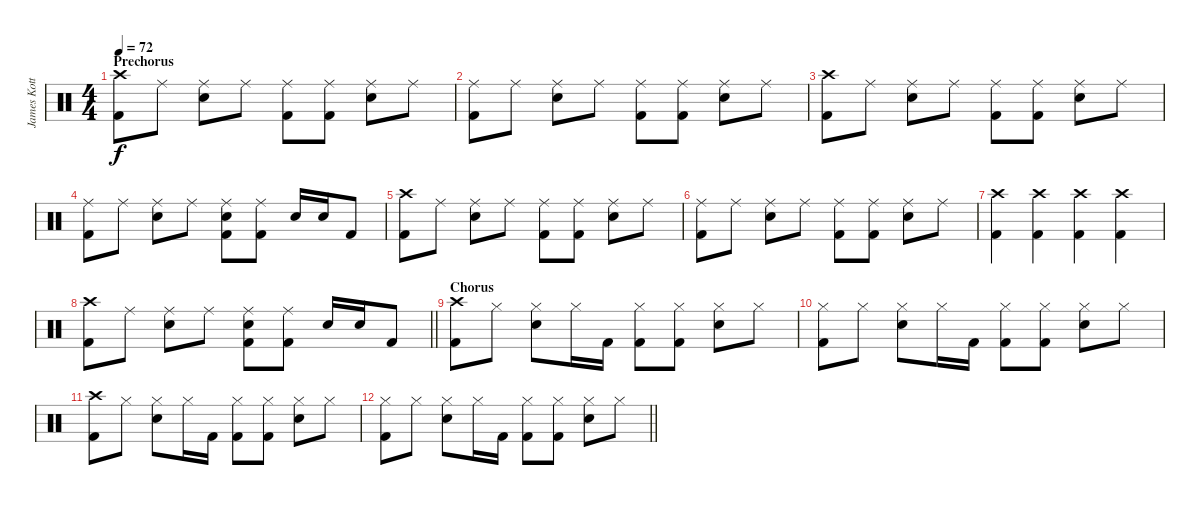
\track ("James Kottak" "James Kott") {instrument percussion}
\staff {score}
\articulation defaults
\ts (4 4)
\section ("" "Prechorus")
\tempo 72
\clef neutral
\ks c
("Crash high (hit)" "Kick (hit) 2").8{dy f} "Ride (middle)".8 ("Ride (middle)" "Snare (hit) 2").8 "Ride (middle)".8 ("Ride (middle)" "Kick (hit) 2").8 ("Ride (middle)" "Kick (hit) 2").8 ("Ride (middle)" "Snare (hit) 2").8 "Ride (middle)".8 |
("Ride (middle)" "Kick (hit) 2").8 "Ride (middle)".8 ("Ride (middle)" "Snare (hit) 2").8 "Ride (middle)".8 ("Ride (middle)" "Kick (hit) 2").8 ("Ride (middle)" "Kick (hit) 2").8 ("Ride (middle)" "Snare (hit) 2").8 "Ride (middle)".8 |
("Crash high (hit)" "Kick (hit) 2").8 "Ride (middle)".8 ("Ride (middle)" "Snare (hit) 2").8 "Ride (middle)".8 ("Ride (middle)" "Kick (hit) 2").8 ("Ride (middle)" "Kick (hit) 2").8 ("Ride (middle)" "Snare (hit) 2").8 "Ride (middle)".8 |
("Ride (middle)" "Kick (hit) 2").8 "Ride (middle)".8 ("Ride (middle)" "Snare (hit) 2").8 "Ride (middle)".8 ("Ride (middle)" "Snare (hit) 2" "Kick (hit) 2").8 ("Ride (middle)" "Kick (hit) 2").8 "Snare (hit) 2".16 "Snare (hit) 2".16 "Kick (hit) 2".8 |
("Crash high (hit)" "Kick (hit) 2").8 "Ride (middle)".8 ("Ride (middle)" "Snare (hit) 2").8 "Ride (middle)".8 ("Ride (middle)" "Kick (hit) 2").8 ("Ride (middle)" "Kick (hit) 2").8 ("Ride (middle)" "Snare (hit) 2").8 "Ride (middle)".8 |
("Ride (middle)" "Kick (hit) 2").8 "Ride (middle)".8 ("Ride (middle)" "Snare (hit) 2").8 "Ride (middle)".8 ("Ride (middle)" "Kick (hit) 2").8 ("Ride (middle)" "Kick (hit) 2").8 ("Ride (middle)" "Snare (hit) 2").8 "Ride (middle)".8 |
("Crash high (hit)" "Kick (hit) 2").4 ("Crash high (hit)" "Kick (hit) 2").4 ("Crash high (hit)" "Kick (hit) 2").4 ("Crash high (hit)" "Kick (hit) 2").4 |
\barLineRight lightlight
("Crash high (hit)" "Kick (hit) 2").8 "Ride (middle)".8 ("Ride (middle)" "Snare (hit) 2").8 "Ride (middle)".8 ("Ride (middle)" "Snare (hit) 2" "Kick (hit) 2").8 ("Ride (middle)" "Kick (hit) 2").8 "Snare (hit) 2".16 "Snare (hit) 2".16 "Kick (hit) 2".8 |
\section ("" "Chorus")
("Crash high (hit)" "Kick (hit) 2").8 "Hi-Hat (closed)".8 ("Hi-Hat (closed)" "Snare (hit) 2").8 "Hi-Hat (closed)".16 "Kick (hit) 2".16 ("Hi-Hat (closed)" "Kick (hit) 2").8 ("Hi-Hat (closed)" "Kick (hit) 2").8 ("Hi-Hat (closed)" "Snare (hit) 2").8 "Hi-Hat (closed)".8 |
("Hi-Hat (closed)" "Kick (hit) 2").8 "Hi-Hat (closed)".8 ("Hi-Hat (closed)" "Snare (hit) 2").8 "Hi-Hat (closed)".16 "Kick (hit) 2".16 ("Hi-Hat (closed)" "Kick (hit) 2").8 ("Hi-Hat (closed)" "Kick (hit) 2").8 ("Hi-Hat (closed)" "Snare (hit) 2").8 "Hi-Hat (closed)".8 |
("Crash high (hit)" "Kick (hit) 2").8 "Hi-Hat (closed)".8 ("Hi-Hat (closed)" "Snare (hit) 2").8 "Hi-Hat (closed)".16 "Kick (hit) 2".16 ("Hi-Hat (closed)" "Kick (hit) 2").8 ("Hi-Hat (closed)" "Kick (hit) 2").8 ("Hi-Hat (closed)" "Snare (hit) 2").8 "Hi-Hat (closed)".8 |
\barLineRight lightlight
("Hi-Hat (closed)" "Kick (hit) 2").8 "Hi-Hat (closed)".8 ("Hi-Hat (closed)" "Snare (hit) 2").8 "Hi-Hat (closed)".16 "Kick (hit) 2".16 ("Hi-Hat (closed)" "Kick (hit) 2").8 ("Hi-Hat (closed)" "Kick (hit) 2").8 ("Hi-Hat (closed)" "Snare (hit) 2").8 "Hi-Hat (closed)".8
